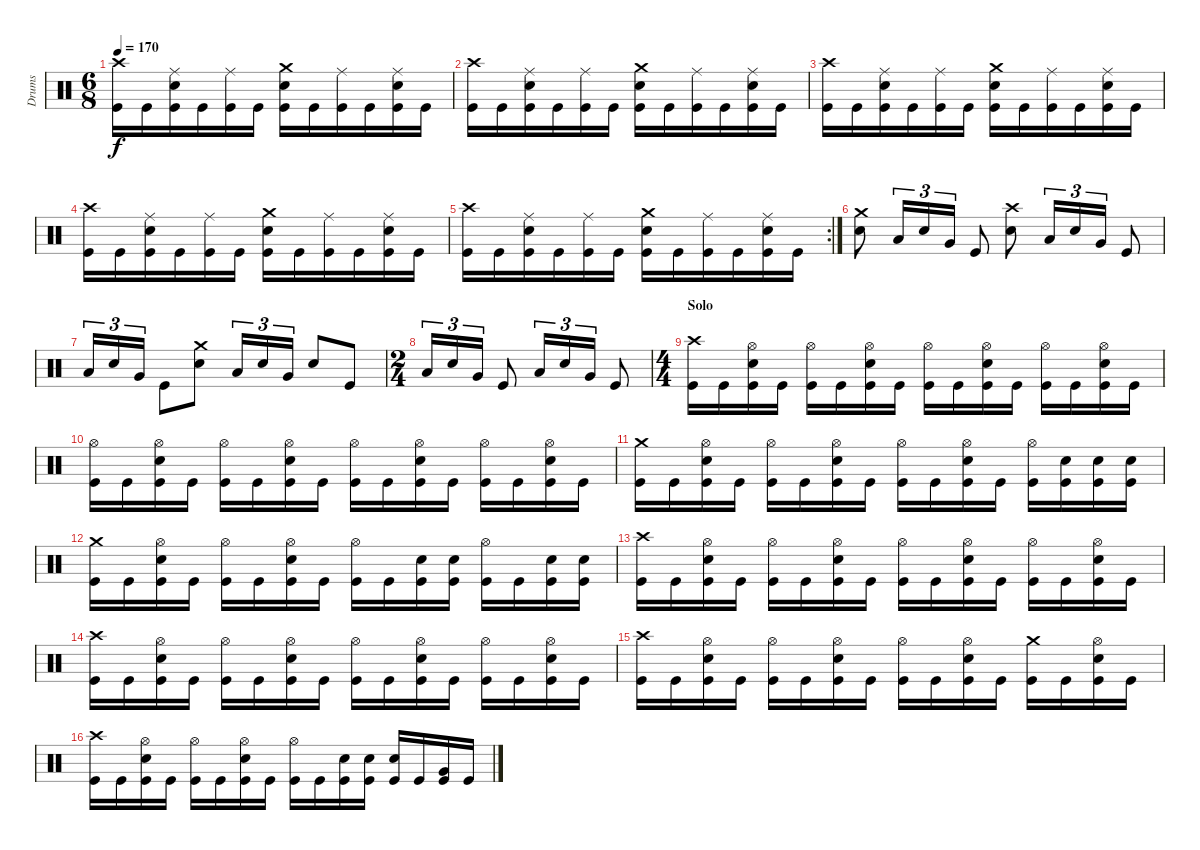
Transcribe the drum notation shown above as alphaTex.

\track ("Drums" "Drums") {instrument percussion}
\staff {score}
\articulation defaults
\ts (6 8)
\tempo 170
\clef neutral
\ks c
("Crash high (hit)" "Kick (hit)").16{dy f} "Kick (hit)".16 ("Ride (middle)" "Electric Snare (hit)" "Kick (hit)").16 "Kick (hit)".16 ("Ride (middle)" "Kick (hit)").16 "Kick (hit)".16 ("Crash medium (hit)" "Electric Snare (hit)" "Kick (hit)").16 "Kick (hit)".16 ("Ride (middle)" "Kick (hit)").16 "Kick (hit)".16 ("Ride (middle)" "Electric Snare (hit)" "Kick (hit)").16 "Kick (hit)".16 |
("Crash high (hit)" "Kick (hit)").16 "Kick (hit)".16 ("Ride (middle)" "Electric Snare (hit)" "Kick (hit)").16 "Kick (hit)".16 ("Ride (middle)" "Kick (hit)").16 "Kick (hit)".16 ("Crash medium (hit)" "Electric Snare (hit)" "Kick (hit)").16 "Kick (hit)".16 ("Ride (middle)" "Kick (hit)").16 "Kick (hit)".16 ("Ride (middle)" "Electric Snare (hit)" "Kick (hit)").16 "Kick (hit)".16 |
("Crash high (hit)" "Kick (hit)").16 "Kick (hit)".16 ("Ride (middle)" "Electric Snare (hit)" "Kick (hit)").16 "Kick (hit)".16 ("Ride (middle)" "Kick (hit)").16 "Kick (hit)".16 ("Crash medium (hit)" "Electric Snare (hit)" "Kick (hit)").16 "Kick (hit)".16 ("Ride (middle)" "Kick (hit)").16 "Kick (hit)".16 ("Ride (middle)" "Electric Snare (hit)" "Kick (hit)").16 "Kick (hit)".16 |
("Crash high (hit)" "Kick (hit)").16 "Kick (hit)".16 ("Ride (middle)" "Electric Snare (hit)" "Kick (hit)").16 "Kick (hit)".16 ("Ride (middle)" "Kick (hit)").16 "Kick (hit)".16 ("Crash medium (hit)" "Electric Snare (hit)" "Kick (hit)").16 "Kick (hit)".16 ("Ride (middle)" "Kick (hit)").16 "Kick (hit)".16 ("Ride (middle)" "Electric Snare (hit)" "Kick (hit)").16 "Kick (hit)".16 |
\rc 2
("Crash high (hit)" "Kick (hit)").16 "Kick (hit)".16 ("Ride (middle)" "Electric Snare (hit)" "Kick (hit)").16 "Kick (hit)".16 ("Ride (middle)" "Kick (hit)").16 "Kick (hit)".16 ("Crash medium (hit)" "Electric Snare (hit)" "Kick (hit)").16 "Kick (hit)".16 ("Ride (middle)" "Kick (hit)").16 "Kick (hit)".16 ("Ride (middle)" "Electric Snare (hit)" "Kick (hit)").16 "Kick (hit)".16 |
("Crash medium (hit)" "Electric Snare (hit)").8 "Low Tom (hit)".16{tu (3 2)} "Electric Snare (hit)".16{tu (3 2)} "Very Low Tom (hit)".16{tu (3 2)} "Kick (hit)".8 ("Crash high (hit)" "Electric Snare (hit)").8 "Low Tom (hit)".16{tu (3 2)} "Electric Snare (hit)".16{tu (3 2)} "Very Low Tom (hit)".16{tu (3 2)} "Kick (hit)".8 |
"Low Tom (hit)".16{tu (3 2)} "Electric Snare (hit)".16{tu (3 2)} "Very Low Tom (hit)".16{tu (3 2)} "Kick (hit)".8 ("Crash medium (hit)" "Electric Snare (hit)").8 "Low Tom (hit)".16{tu (3 2)} "Electric Snare (hit)".16{tu (3 2)} "Very Low Tom (hit)".16{tu (3 2)} "Electric Snare (hit)".8 "Kick (hit)".8 |
\ts (2 4)
"Low Tom (hit)".16{tu (3 2)} "Electric Snare (hit)".16{tu (3 2)} "Very Low Tom (hit)".16{tu (3 2)} "Kick (hit)".8 "Low Tom (hit)".16{tu (3 2)} "Electric Snare (hit)".16{tu (3 2)} "Very Low Tom (hit)".16{tu (3 2)} "Kick (hit)".8 |
\ts (4 4)
\section ("" "Solo")
("Crash high (hit)" "Kick (hit)").16 "Kick (hit)".16 ("Hi-Hat (open)" "Electric Snare (hit)" "Kick (hit)").16 "Kick (hit)".16 ("Hi-Hat (open)" "Kick (hit)").16 "Kick (hit)".16 ("Hi-Hat (open)" "Electric Snare (hit)" "Kick (hit)").16 "Kick (hit)".16 ("Hi-Hat (open)" "Kick (hit)").16 "Kick (hit)".16 ("Hi-Hat (open)" "Electric Snare (hit)" "Kick (hit)").16 "Kick (hit)".16 ("Hi-Hat (open)" "Kick (hit)").16 "Kick (hit)".16 ("Hi-Hat (open)" "Electric Snare (hit)" "Kick (hit)").16 "Kick (hit)".16 |
("Hi-Hat (open)" "Kick (hit)").16 "Kick (hit)".16 ("Hi-Hat (open)" "Electric Snare (hit)" "Kick (hit)").16 "Kick (hit)".16 ("Hi-Hat (open)" "Kick (hit)").16 "Kick (hit)".16 ("Hi-Hat (open)" "Electric Snare (hit)" "Kick (hit)").16 "Kick (hit)".16 ("Hi-Hat (open)" "Kick (hit)").16 "Kick (hit)".16 ("Hi-Hat (open)" "Electric Snare (hit)" "Kick (hit)").16 "Kick (hit)".16 ("Hi-Hat (open)" "Kick (hit)").16 "Kick (hit)".16 ("Hi-Hat (open)" "Electric Snare (hit)" "Kick (hit)").16 "Kick (hit)".16 |
("Crash medium (hit)" "Kick (hit)").16 "Kick (hit)".16 ("Hi-Hat (open)" "Electric Snare (hit)" "Kick (hit)").16 "Kick (hit)".16 ("Hi-Hat (open)" "Kick (hit)").16 "Kick (hit)".16 ("Hi-Hat (open)" "Electric Snare (hit)" "Kick (hit)").16 "Kick (hit)".16 ("Hi-Hat (open)" "Kick (hit)").16 "Kick (hit)".16 ("Hi-Hat (open)" "Electric Snare (hit)" "Kick (hit)").16 "Kick (hit)".16 ("Hi-Hat (open)" "Kick (hit)").16 ("Electric Snare (hit)" "Kick (hit)").16 ("Electric Snare (hit)" "Kick (hit)").16 ("Electric Snare (hit)" "Kick (hit)").16 |
("Crash medium (hit)" "Kick (hit)").16 "Kick (hit)".16 ("Hi-Hat (open)" "Electric Snare (hit)" "Kick (hit)").16 "Kick (hit)".16 ("Hi-Hat (open)" "Kick (hit)").16 "Kick (hit)".16 ("Hi-Hat (open)" "Electric Snare (hit)" "Kick (hit)").16 "Kick (hit)".16 ("Hi-Hat (open)" "Kick (hit)").16 "Kick (hit)".16 ("Electric Snare (hit)" "Kick (hit)").16 ("Electric Snare (hit)" "Kick (hit)").16 ("Hi-Hat (open)" "Kick (hit)").16 "Kick (hit)".16 ("Electric Snare (hit)" "Kick (hit)").16 ("Electric Snare (hit)" "Kick (hit)").16 |
("Crash high (hit)" "Kick (hit)").16 "Kick (hit)".16 ("Hi-Hat (open)" "Electric Snare (hit)" "Kick (hit)").16 "Kick (hit)".16 ("Hi-Hat (open)" "Kick (hit)").16 "Kick (hit)".16 ("Hi-Hat (open)" "Electric Snare (hit)" "Kick (hit)").16 "Kick (hit)".16 ("Hi-Hat (open)" "Kick (hit)").16 "Kick (hit)".16 ("Hi-Hat (open)" "Electric Snare (hit)" "Kick (hit)").16 "Kick (hit)".16 ("Hi-Hat (open)" "Kick (hit)").16 "Kick (hit)".16 ("Hi-Hat (open)" "Electric Snare (hit)" "Kick (hit)").16 "Kick (hit)".16 |
("Crash high (hit)" "Kick (hit)").16 "Kick (hit)".16 ("Hi-Hat (open)" "Electric Snare (hit)" "Kick (hit)").16 "Kick (hit)".16 ("Hi-Hat (open)" "Kick (hit)").16 "Kick (hit)".16 ("Hi-Hat (open)" "Electric Snare (hit)" "Kick (hit)").16 "Kick (hit)".16 ("Hi-Hat (open)" "Kick (hit)").16 "Kick (hit)".16 ("Hi-Hat (open)" "Electric Snare (hit)" "Kick (hit)").16 "Kick (hit)".16 ("Hi-Hat (open)" "Kick (hit)").16 "Kick (hit)".16 ("Hi-Hat (open)" "Electric Snare (hit)" "Kick (hit)").16 "Kick (hit)".16 |
("Crash high (hit)" "Kick (hit)").16 "Kick (hit)".16 ("Hi-Hat (open)" "Electric Snare (hit)" "Kick (hit)").16 "Kick (hit)".16 ("Hi-Hat (open)" "Kick (hit)").16 "Kick (hit)".16 ("Hi-Hat (open)" "Electric Snare (hit)" "Kick (hit)").16 "Kick (hit)".16 ("Hi-Hat (open)" "Kick (hit)").16 "Kick (hit)".16 ("Hi-Hat (open)" "Electric Snare (hit)" "Kick (hit)").16 "Kick (hit)".16 ("Crash medium (hit)" "Kick (hit)").16 "Kick (hit)".16 ("Hi-Hat (open)" "Electric Snare (hit)" "Kick (hit)").16 "Kick (hit)".16 |
("Crash high (hit)" "Kick (hit)").16 "Kick (hit)".16 ("Hi-Hat (open)" "Electric Snare (hit)" "Kick (hit)").16 "Kick (hit)".16 ("Hi-Hat (open)" "Kick (hit)").16 "Kick (hit)".16 ("Hi-Hat (open)" "Electric Snare (hit)" "Kick (hit)").16 "Kick (hit)".16 ("Hi-Hat (open)" "Kick (hit)").16 "Kick (hit)".16 ("Electric Snare (hit)" "Kick (hit)").16 ("Electric Snare (hit)" "Kick (hit)").16 ("Electric Snare (hit)" "Kick (hit)").16 "Kick (hit)".16 ("Very Low Tom (hit)" "Kick (hit)").16 "Kick (hit)".16
